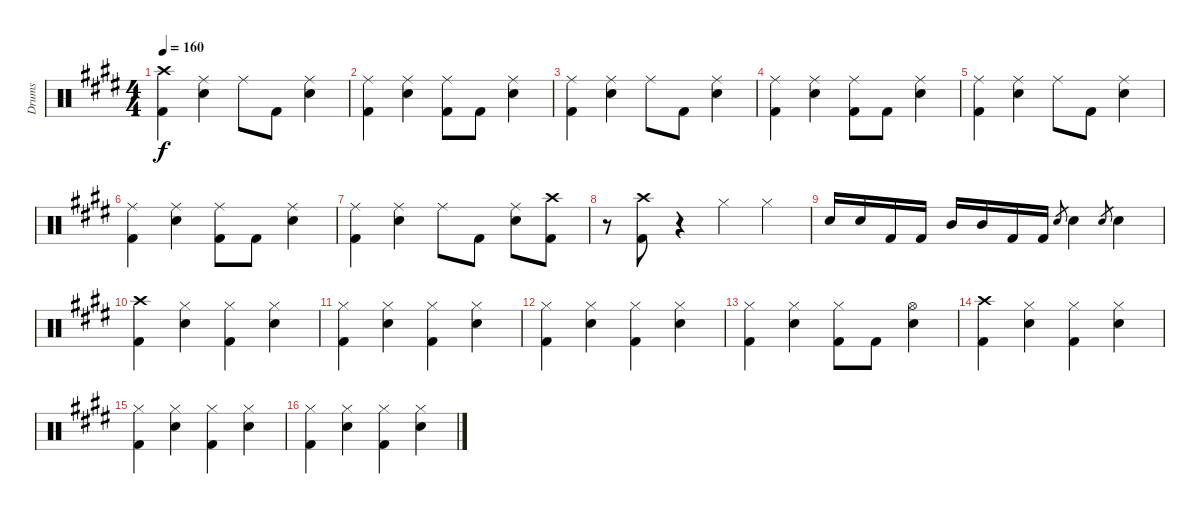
\track ("Drums" "Drums") {instrument percussion}
\staff {score}
\articulation defaults
\ts (4 4)
\tempo 160
\clef neutral
\ks e
("Crash high (hit)" "Kick (hit) 2").4{dy f} ("Ride (middle)" "Electric Snare (hit)").4 "Ride (middle)".8 "Kick (hit) 2".8 ("Ride (middle)" "Electric Snare (hit)").4 |
("Ride (middle)" "Kick (hit) 2").4 ("Ride (middle)" "Electric Snare (hit)").4 ("Ride (middle)" "Kick (hit) 2").8 "Kick (hit) 2".8 ("Ride (middle)" "Electric Snare (hit)").4 |
("Ride (middle)" "Kick (hit) 2").4 ("Ride (middle)" "Electric Snare (hit)").4 "Ride (middle)".8 "Kick (hit) 2".8 ("Ride (middle)" "Electric Snare (hit)").4 |
("Ride (middle)" "Kick (hit) 2").4 ("Ride (middle)" "Electric Snare (hit)").4 ("Ride (middle)" "Kick (hit) 2").8 "Kick (hit) 2".8 ("Ride (middle)" "Electric Snare (hit)").4 |
("Ride (middle)" "Kick (hit) 2").4 ("Ride (middle)" "Electric Snare (hit)").4 "Ride (middle)".8 "Kick (hit) 2".8 ("Ride (middle)" "Electric Snare (hit)").4 |
("Ride (middle)" "Kick (hit) 2").4 ("Ride (middle)" "Electric Snare (hit)").4 ("Ride (middle)" "Kick (hit) 2").8 "Kick (hit) 2".8 ("Ride (middle)" "Electric Snare (hit)").4 |
("Ride (middle)" "Kick (hit) 2").4 ("Ride (middle)" "Electric Snare (hit)").4 "Ride (middle)".8 "Kick (hit) 2".8 ("Ride (middle)" "Electric Snare (hit)").8 ("Crash high (hit)" "Kick (hit) 2").8 |
r.8 ("Crash high (hit)" "Kick (hit) 2").8 r.4 "Hi-Hat (closed)".4 "Hi-Hat (closed)".4 |
"Electric Snare (hit)".16 "Electric Snare (hit)".16 "Kick (hit) 2".16 "Kick (hit) 2".16 "Mid Tom (hit)".16 "Mid Tom (hit)".16 "Kick (hit) 2".16 "Kick (hit) 2".16 "Electric Snare (hit)".8{gr} "Electric Snare (hit)".4 "Electric Snare (hit)".8{gr} "Electric Snare (hit)".4 |
("Crash high (hit)" "Kick (hit) 2").4 ("Hi-Hat (closed)" "Electric Snare (hit)").4 ("Hi-Hat (closed)" "Kick (hit) 2").4 ("Hi-Hat (closed)" "Electric Snare (hit)").4 |
("Hi-Hat (closed)" "Kick (hit) 2").4 ("Hi-Hat (closed)" "Electric Snare (hit)").4 ("Hi-Hat (closed)" "Kick (hit) 2").4 ("Hi-Hat (closed)" "Electric Snare (hit)").4 |
("Hi-Hat (closed)" "Kick (hit) 2").4 ("Hi-Hat (closed)" "Electric Snare (hit)").4 ("Hi-Hat (closed)" "Kick (hit) 2").4 ("Hi-Hat (closed)" "Electric Snare (hit)").4 |
("Hi-Hat (closed)" "Kick (hit) 2").4 ("Hi-Hat (closed)" "Electric Snare (hit)").4 ("Hi-Hat (closed)" "Kick (hit) 2").8 "Kick (hit) 2".8 ("Hi-Hat (open)" "Electric Snare (hit)").4 |
("Crash high (hit)" "Kick (hit) 2").4 ("Hi-Hat (closed)" "Electric Snare (hit)").4 ("Hi-Hat (closed)" "Kick (hit) 2").4 ("Hi-Hat (closed)" "Electric Snare (hit)").4 |
("Hi-Hat (closed)" "Kick (hit) 2").4 ("Hi-Hat (closed)" "Electric Snare (hit)").4 ("Hi-Hat (closed)" "Kick (hit) 2").4 ("Hi-Hat (closed)" "Electric Snare (hit)").4 |
("Hi-Hat (closed)" "Kick (hit) 2").4 ("Hi-Hat (closed)" "Electric Snare (hit)").4 ("Hi-Hat (closed)" "Kick (hit) 2").4 ("Hi-Hat (closed)" "Electric Snare (hit)").4
